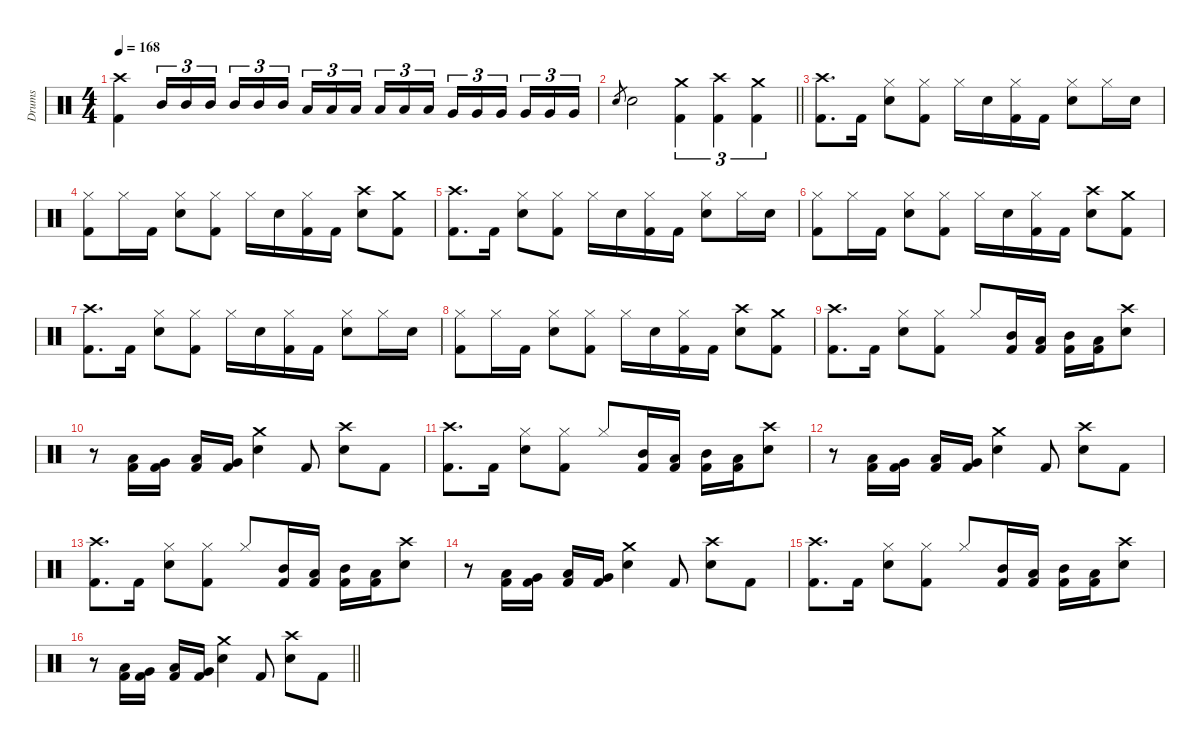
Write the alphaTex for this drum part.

\defaultSystemsLayout 4
\hideDynamics
\bracketExtendMode nobrackets
\firstSystemTrackNameMode fullname
\otherSystemsTrackNameOrientation horizontal
\track ("Drums" "drm.") {instrument percussion}
\staff {score}
\articulation defaults
\ts (4 4)
\tempo 168
\clef neutral
\ks c
("Crash high (hit)" "Kick (hit) 2").4{dy f beam Down} "Mid Tom (hit)".16{tu (3 2) dy ff beam Up} "Mid Tom (hit)".16{tu (3 2) beam Up} "Mid Tom (hit)".16{tu (3 2) dy f beam Up} "Mid Tom (hit)".16{tu (3 2) beam Up} "Mid Tom (hit)".16{tu (3 2) beam Up} "Mid Tom (hit)".16{tu (3 2) beam Up} "Low Tom (hit)".16{tu (3 2) dy ff beam Up} "Low Tom (hit)".16{tu (3 2) beam Up} "Low Tom (hit)".16{tu (3 2) dy f beam Up} "Low Tom (hit)".16{tu (3 2) beam Up} "Low Tom (hit)".16{tu (3 2) beam Up} "Low Tom (hit)".16{tu (3 2) beam Up} "Very Low Tom (hit)".16{tu (3 2) dy ff beam Up} "Very Low Tom (hit)".16{tu (3 2) beam Up} "Very Low Tom (hit)".16{tu (3 2) dy f beam Up} "Very Low Tom (hit)".16{tu (3 2) beam Up} "Very Low Tom (hit)".16{tu (3 2) beam Up} "Very Low Tom (hit)".16{tu (3 2) beam Up} |
\barLineRight lightlight "Snare (hit) 2".8{gr dy mf beam Up} "Snare (hit) 2".2{dy f beam Down}
("Crash medium (hit)" "Kick (hit) 2").4{tu (3 2) dy ff beam Down} ("Crash high (hit)" "Kick (hit) 2").4{tu (3 2) beam Down} ("Crash medium (hit)" "Kick (hit) 2").4{tu (3 2) beam Down} |
("Crash high (hit)" "Kick (hit) 2").8{d dy f beam Down} "Kick (hit) 2".16{beam Down} ("Hi-Hat (closed)" "Snare (hit) 2").8{beam Down} ("Hi-Hat (closed)" "Kick (hit) 2").8{beam Down} "Hi-Hat (closed)".16{beam Down} "Snare (hit) 2".16{dy p beam Down} ("Hi-Hat (closed)" "Kick (hit) 2").16{dy f beam Down} "Kick (hit) 2".16{beam Down} ("Hi-Hat (closed)" "Snare (hit) 2").8{beam Down} "Hi-Hat (closed)".16{beam Down} "Snare (hit) 2".16{beam Down} |
("Hi-Hat (closed)" "Kick (hit) 2").8{beam Down} "Hi-Hat (closed)".16{beam Down} "Kick (hit) 2".16{beam Down} ("Hi-Hat (closed)" "Snare (hit) 2").8{beam Down} ("Hi-Hat (closed)" "Kick (hit) 2").8{beam Down} "Hi-Hat (closed)".16{beam Down} "Snare (hit) 2".16{dy p beam Down} ("Hi-Hat (closed)" "Kick (hit) 2").16{dy f beam Down} "Kick (hit) 2".16{beam Down} ("Crash high (hit)" "Snare (hit) 2").8{beam Down} ("Crash medium (hit)" "Kick (hit) 2").8{beam Down} |
("Crash high (hit)" "Kick (hit) 2").8{d beam Down} "Kick (hit) 2".16{beam Down} ("Hi-Hat (closed)" "Snare (hit) 2").8{beam Down} ("Hi-Hat (closed)" "Kick (hit) 2").8{beam Down} "Hi-Hat (closed)".16{beam Down} "Snare (hit) 2".16{dy p beam Down} ("Hi-Hat (closed)" "Kick (hit) 2").16{dy f beam Down} "Kick (hit) 2".16{beam Down} ("Hi-Hat (closed)" "Snare (hit) 2").8{beam Down} "Hi-Hat (closed)".16{beam Down} "Snare (hit) 2".16{beam Down} |
("Hi-Hat (closed)" "Kick (hit) 2").8{beam Down} "Hi-Hat (closed)".16{beam Down} "Kick (hit) 2".16{beam Down} ("Hi-Hat (closed)" "Snare (hit) 2").8{beam Down} ("Hi-Hat (closed)" "Kick (hit) 2").8{beam Down} "Hi-Hat (closed)".16{beam Down} "Snare (hit) 2".16{dy p beam Down} ("Hi-Hat (closed)" "Kick (hit) 2").16{dy f beam Down} "Kick (hit) 2".16{beam Down} ("Crash high (hit)" "Snare (hit) 2").8{beam Down} ("Crash medium (hit)" "Kick (hit) 2").8{beam Down} |
("Crash high (hit)" "Kick (hit) 2").8{d beam Down} "Kick (hit) 2".16{beam Down} ("Hi-Hat (closed)" "Snare (hit) 2").8{beam Down} ("Hi-Hat (closed)" "Kick (hit) 2").8{beam Down} "Hi-Hat (closed)".16{beam Down} "Snare (hit) 2".16{dy p beam Down} ("Hi-Hat (closed)" "Kick (hit) 2").16{dy f beam Down} "Kick (hit) 2".16{beam Down} ("Hi-Hat (closed)" "Snare (hit) 2").8{beam Down} "Hi-Hat (closed)".16{beam Down} "Snare (hit) 2".16{beam Down} |
("Hi-Hat (closed)" "Kick (hit) 2").8{beam Down} "Hi-Hat (closed)".16{beam Down} "Kick (hit) 2".16{beam Down} ("Hi-Hat (closed)" "Snare (hit) 2").8{beam Down} ("Hi-Hat (closed)" "Kick (hit) 2").8{beam Down} "Hi-Hat (closed)".16{beam Down} "Snare (hit) 2".16{dy p beam Down} ("Hi-Hat (closed)" "Kick (hit) 2").16{dy f beam Down} "Kick (hit) 2".16{beam Down} ("Crash high (hit)" "Snare (hit) 2").8{beam Down} ("Crash medium (hit)" "Kick (hit) 2").8{beam Down} |
("Crash high (hit)" "Kick (hit) 2").8{d beam Down} "Kick (hit) 2".16{beam Down} ("Hi-Hat (closed)" "Snare (hit) 2").8{beam Down} ("Hi-Hat (closed)" "Kick (hit) 2").8{beam Down} "Hi-Hat (closed)".8{beam Up} ("Mid Tom (hit)" "Kick (hit) 2").16{beam Up} ("Low Tom (hit)" "Kick (hit) 2").16{beam Up} ("Mid Tom (hit)" "Kick (hit) 2").16{beam Down} ("Low Tom (hit)" "Kick (hit) 2").16{beam Down} ("Crash high (hit)" "Snare (hit) 2").8{beam Down} |
r.8{beam Down} ("Low Tom (hit)" "Kick (hit) 2").16{beam Up} ("Very Low Tom (hit)" "Kick (hit) 2").16{beam Up} ("Low Tom (hit)" "Kick (hit) 2").16{beam Up} ("Very Low Tom (hit)" "Kick (hit) 2").16{beam Up} ("Crash medium (hit)" "Snare (hit) 2").4{beam Down} "Kick (hit) 2".8{beam Up} ("Crash high (hit)" "Snare (hit) 2").8{beam Down} "Kick (hit) 2".8{beam Down} |
("Crash high (hit)" "Kick (hit) 2").8{d beam Down} "Kick (hit) 2".16{beam Down} ("Hi-Hat (closed)" "Snare (hit) 2").8{beam Down} ("Hi-Hat (closed)" "Kick (hit) 2").8{beam Down} "Hi-Hat (closed)".8{beam Up} ("Mid Tom (hit)" "Kick (hit) 2").16{beam Up} ("Low Tom (hit)" "Kick (hit) 2").16{beam Up} ("Mid Tom (hit)" "Kick (hit) 2").16{beam Down} ("Low Tom (hit)" "Kick (hit) 2").16{beam Down} ("Crash high (hit)" "Snare (hit) 2").8{beam Down} |
r.8{beam Down} ("Low Tom (hit)" "Kick (hit) 2").16{beam Up} ("Very Low Tom (hit)" "Kick (hit) 2").16{beam Up} ("Low Tom (hit)" "Kick (hit) 2").16{beam Up} ("Very Low Tom (hit)" "Kick (hit) 2").16{beam Up} ("Crash medium (hit)" "Snare (hit) 2").4{beam Down} "Kick (hit) 2".8{beam Up} ("Crash high (hit)" "Snare (hit) 2").8{beam Down} "Kick (hit) 2".8{beam Down} |
("Crash high (hit)" "Kick (hit) 2").8{d beam Down} "Kick (hit) 2".16{beam Down} ("Hi-Hat (closed)" "Snare (hit) 2").8{beam Down} ("Hi-Hat (closed)" "Kick (hit) 2").8{beam Down} "Hi-Hat (closed)".8{beam Up} ("Mid Tom (hit)" "Kick (hit) 2").16{beam Up} ("Low Tom (hit)" "Kick (hit) 2").16{beam Up} ("Mid Tom (hit)" "Kick (hit) 2").16{beam Down} ("Low Tom (hit)" "Kick (hit) 2").16{beam Down} ("Crash high (hit)" "Snare (hit) 2").8{beam Down} |
r.8{beam Down} ("Low Tom (hit)" "Kick (hit) 2").16{beam Up} ("Very Low Tom (hit)" "Kick (hit) 2").16{beam Up} ("Low Tom (hit)" "Kick (hit) 2").16{beam Up} ("Very Low Tom (hit)" "Kick (hit) 2").16{beam Up} ("Crash medium (hit)" "Snare (hit) 2").4{beam Down} "Kick (hit) 2".8{beam Up} ("Crash high (hit)" "Snare (hit) 2").8{beam Down} "Kick (hit) 2".8{beam Down} |
("Crash high (hit)" "Kick (hit) 2").8{d beam Down} "Kick (hit) 2".16{beam Down} ("Hi-Hat (closed)" "Snare (hit) 2").8{beam Down} ("Hi-Hat (closed)" "Kick (hit) 2").8{beam Down} "Hi-Hat (closed)".8{beam Up} ("Mid Tom (hit)" "Kick (hit) 2").16{beam Up} ("Low Tom (hit)" "Kick (hit) 2").16{beam Up} ("Mid Tom (hit)" "Kick (hit) 2").16{beam Down} ("Low Tom (hit)" "Kick (hit) 2").16{beam Down} ("Crash high (hit)" "Snare (hit) 2").8{beam Down} |
\barLineRight lightlight
r.8{beam Down} ("Low Tom (hit)" "Kick (hit) 2").16{beam Up} ("Very Low Tom (hit)" "Kick (hit) 2").16{beam Up} ("Low Tom (hit)" "Kick (hit) 2").16{beam Up} ("Very Low Tom (hit)" "Kick (hit) 2").16{beam Up} ("Crash medium (hit)" "Snare (hit) 2").4{beam Down} "Kick (hit) 2".8{beam Up} ("Crash high (hit)" "Snare (hit) 2").8{beam Down} "Kick (hit) 2".8{beam Down}
